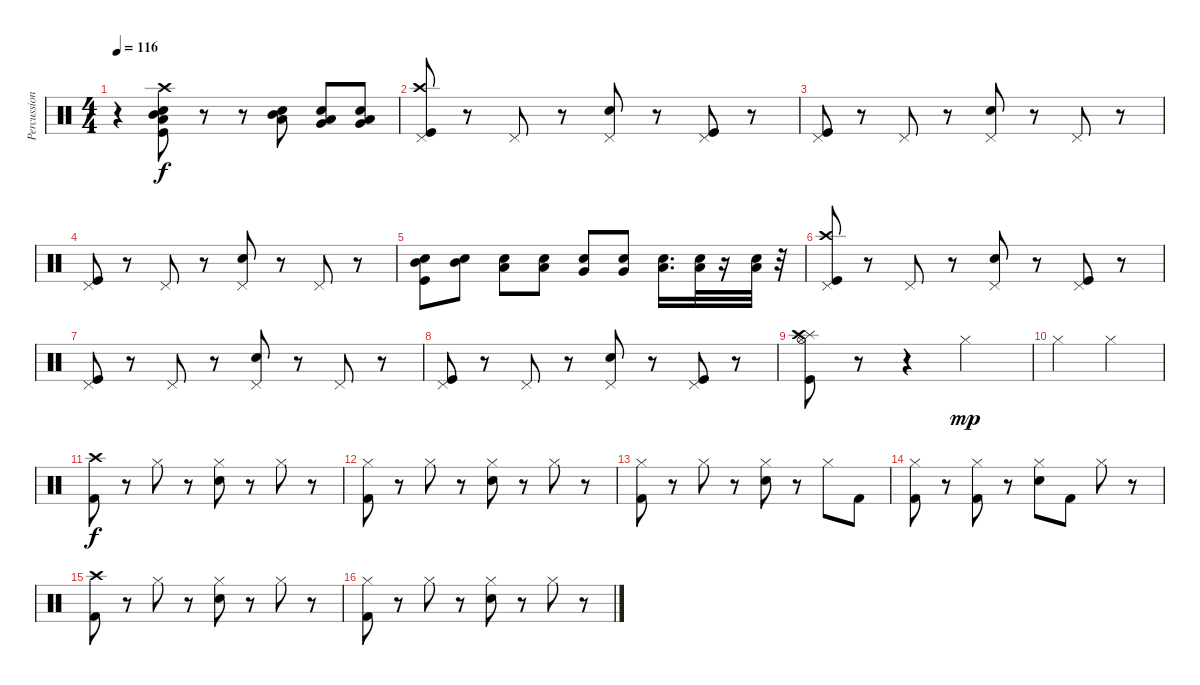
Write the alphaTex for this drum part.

\track ("Percussion" "Percussion") {instrument percussion}
\staff {score}
\articulation defaults
\ts (4 4)
\tempo 116
\clef neutral
\ks c
r.4{dy f} ("Snare (hit) 2" "Kick (hit)" "Crash high (hit)" "Mid Tom (hit)" "Low Tom (hit)").8 r.8 r.8 ("Snare (hit) 2" "Mid Tom (hit)" "Low Tom (hit)").8 ("Snare (hit) 2" "Low Tom (hit)" "Very Low Tom (hit)").8 ("Snare (hit) 2" "Low Floor Tom (hit)" "Very Low Tom (hit)").8 |
("Kick (hit)" "Crash high (hit)" "Pedal Hi-Hat (hit)").8 r.8 "Pedal Hi-Hat (hit)".8 r.8 ("Snare (hit) 2" "Pedal Hi-Hat (hit)").8 r.8 ("Kick (hit)" "Pedal Hi-Hat (hit)").8 r.8 |
("Kick (hit)" "Pedal Hi-Hat (hit)").8 r.8 "Pedal Hi-Hat (hit)".8 r.8 ("Snare (hit) 2" "Pedal Hi-Hat (hit)").8 r.8 "Pedal Hi-Hat (hit)".8 r.8 |
("Kick (hit)" "Pedal Hi-Hat (hit)").8 r.8 "Pedal Hi-Hat (hit)".8 r.8 ("Snare (hit) 2" "Pedal Hi-Hat (hit)").8 r.8 "Pedal Hi-Hat (hit)".8 r.8 |
("Kick (hit)" "Snare (hit) 2" "Mid Tom (hit)").8 ("Snare (hit) 2" "Mid Tom (hit)").8 ("Snare (hit) 2" "Low Tom (hit)").8 ("Snare (hit) 2" "Low Tom (hit)").8 ("Snare (hit) 2" "Very Low Tom (hit)").8 ("Snare (hit) 2" "Very Low Tom (hit)").8 ("Low Floor Tom (hit)" "Snare (hit) 2").16{d} ("Snare (hit) 2" "Low Floor Tom (hit)").32 r.16 ("Snare (hit) 2" "Low Floor Tom (hit)").32 r.32 |
("Kick (hit)" "Crash high (hit)" "Pedal Hi-Hat (hit)").8 r.8 "Pedal Hi-Hat (hit)".8 r.8 ("Snare (hit) 2" "Pedal Hi-Hat (hit)").8 r.8 ("Kick (hit)" "Pedal Hi-Hat (hit)").8 r.8 |
("Kick (hit)" "Pedal Hi-Hat (hit)").8 r.8 "Pedal Hi-Hat (hit)".8 r.8 ("Snare (hit) 2" "Pedal Hi-Hat (hit)").8 r.8 "Pedal Hi-Hat (hit)".8 r.8 |
("Kick (hit)" "Pedal Hi-Hat (hit)").8 r.8 "Pedal Hi-Hat (hit)".8 r.8 ("Snare (hit) 2" "Pedal Hi-Hat (hit)").8 r.8 ("Kick (hit)" "Pedal Hi-Hat (hit)").8 r.8 |
("Kick (hit)" "Splash (hit)" "Hi-Hat (open)" "Crash high (hit)").8 r.8 r.4 "Hi-Hat (closed)".2{dy mp} |
"Hi-Hat (closed)".2 "Hi-Hat (closed)".2 |
("Crash high (hit)" "Kick (hit) 2").8{dy f} r.8 "Hi-Hat (closed)".8 r.8 ("Hi-Hat (closed)" "Snare (hit) 2").8 r.8 "Hi-Hat (closed)".8 r.8 |
("Hi-Hat (closed)" "Kick (hit) 2").8 r.8 "Hi-Hat (closed)".8 r.8 ("Hi-Hat (closed)" "Snare (hit) 2").8 r.8 "Hi-Hat (closed)".8 r.8 |
("Hi-Hat (closed)" "Kick (hit) 2").8 r.8 "Hi-Hat (closed)".8 r.8 ("Hi-Hat (closed)" "Snare (hit) 2").8 r.8 "Hi-Hat (closed)".8 "Kick (hit) 2".8 |
("Hi-Hat (closed)" "Kick (hit) 2").8 r.8 ("Hi-Hat (closed)" "Kick (hit) 2").8 r.8 ("Hi-Hat (closed)" "Snare (hit) 2").8 "Kick (hit) 2".8 "Hi-Hat (closed)".8 r.8 |
("Crash high (hit)" "Kick (hit) 2").8 r.8 "Hi-Hat (closed)".8 r.8 ("Hi-Hat (closed)" "Snare (hit) 2").8 r.8 "Hi-Hat (closed)".8 r.8 |
("Hi-Hat (closed)" "Kick (hit) 2").8 r.8 "Hi-Hat (closed)".8 r.8 ("Hi-Hat (closed)" "Snare (hit) 2").8 r.8 "Hi-Hat (closed)".8 r.8
